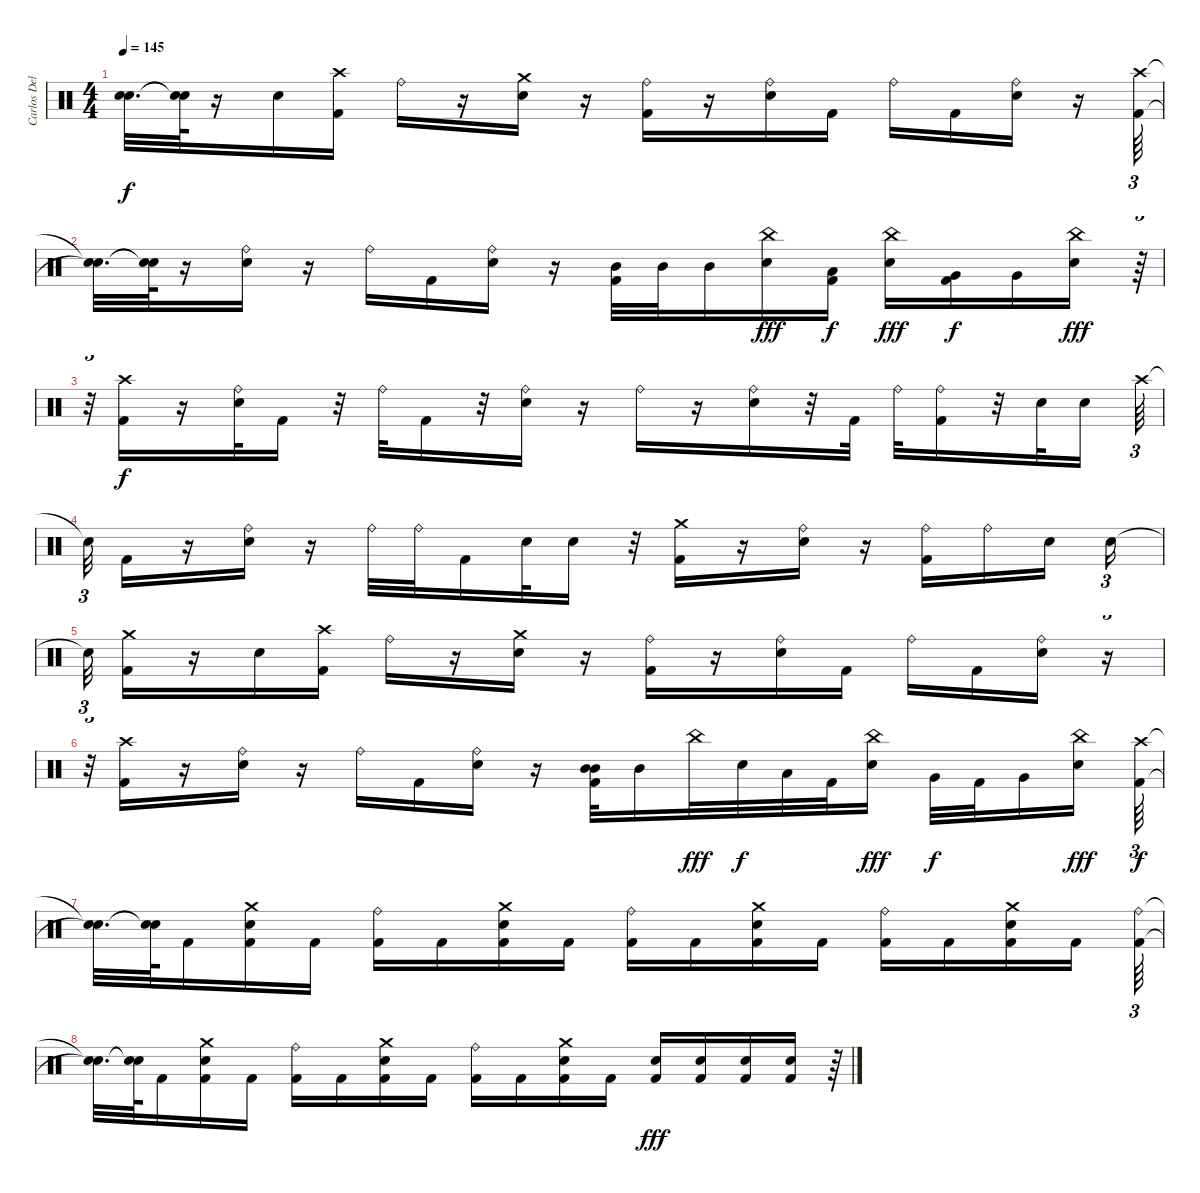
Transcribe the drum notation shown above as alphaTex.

\track ("Carlos Delgado" "Carlos Del") {instrument percussion}
\staff {score}
\articulation defaults
\ts (4 4)
\tempo 145
\clef neutral
\ks c
("Snare (hit)"{t} "Snare (hit)"{t}).32{d dy f} ("Snare (hit)"{t} "Snare (hit)"{t}).64 r.16 "Electric Snare (hit)".16 ("Kick (hit) 2" "Crash high (hit)").16 "Ride (bell)".16 r.16 ("Crash medium (hit)" "Electric Snare (hit)").16 r.16 ("Ride (bell)" "Kick (hit) 2").16 r.16 ("Ride (bell)" "Electric Snare (hit)").16 "Kick (hit) 2".16 "Ride (bell)".16 "Kick (hit) 2".16 ("Ride (bell)" "Electric Snare (hit)").16 r.16 ("Kick (hit) 2" "Crash high (hit)").64{tu (3 2)} |
("Snare (hit)"{t} "Snare (hit)"{t}).32{d} ("Snare (hit)"{t} "Snare (hit)"{t}).64 r.16 ("Ride (bell)" "Electric Snare (hit)").16 r.16 "Ride (bell)".16 "Kick (hit) 2".16 ("Ride (bell)" "Electric Snare (hit)").16 r.16 ("Mid Tom (hit)" "Kick (hit) 2").32 "Mid Tom (hit)".32 "Mid Tom (hit)".16 ("China (hit)" "Electric Snare (hit)").16{dy fff} ("Low Tom (hit)" "Kick (hit) 2").16{dy f} ("China (hit)" "Electric Snare (hit)").16{dy fff} ("Very Low Tom (hit)" "Kick (hit) 2").16{dy f} "Very Low Tom (hit)".16 ("Electric Snare (hit)" "China (hit)").16{dy fff} r.64{tu (3 2)} |
r.32{tu (3 2)} ("Crash high (hit)" "Kick (hit) 2").16{dy f} r.16 ("Ride (bell)" "Electric Snare (hit)").32 "Kick (hit) 2".16 r.32 "Ride (bell)".32 "Kick (hit) 2".16 r.32 ("Ride (bell)" "Electric Snare (hit)").16 r.16 "Ride (bell)".16 r.16 ("Ride (bell)" "Electric Snare (hit)").16 r.32 "Kick (hit) 2".32 "Ride (bell)".32 ("Kick (hit) 2" "Ride (bell)").16 r.32 "Electric Snare (hit)".32 "Electric Snare (hit)".16{beam splitsecondary} "Crash high (hit)".64{tu (3 2)} |
"Snare (hit)"{t}.32{tu (3 2)} "Kick (hit) 2".16 r.16 ("Ride (bell)" "Electric Snare (hit)").16 r.16 "Ride (bell)".32 "Ride (bell)".32 "Kick (hit) 2".16 "Electric Snare (hit)".32 "Electric Snare (hit)".16 r.32 ("Crash medium (hit)" "Kick (hit) 2").16 r.16 ("Ride (bell)" "Electric Snare (hit)").16 r.16 ("Kick (hit) 2" "Ride (bell)").16 "Ride (bell)".16 "Electric Snare (hit)".16{beam splitsecondary} "Electric Snare (hit)".16{tu (3 2)} |
"Snare (hit)"{t}.32{tu (3 2)} ("Kick (hit) 2" "Crash medium (hit)").16 r.16 "Electric Snare (hit)".16 ("Kick (hit) 2" "Crash high (hit)").16 "Ride (bell)".16 r.16 ("Crash medium (hit)" "Electric Snare (hit)").16 r.16 ("Ride (bell)" "Kick (hit) 2").16 r.16 ("Ride (bell)" "Electric Snare (hit)").16 "Kick (hit) 2".16 "Ride (bell)".16 "Kick (hit) 2".16 ("Ride (bell)" "Electric Snare (hit)").16 r.16{tu (3 2)} |
r.32{tu (3 2)} ("Kick (hit) 2" "Crash high (hit)").16 r.16 ("Ride (bell)" "Electric Snare (hit)").16 r.16 "Ride (bell)".16 "Kick (hit) 2".16 ("Ride (bell)" "Electric Snare (hit)").16 r.16 ("Mid Tom (hit)" "Kick (hit) 2" "Mid Tom (hit)").32 "Mid Tom (hit)".16 "China (hit)".32{dy fff} "Electric Snare (hit)".32{dy f} "Low Tom (hit)".32 "Kick (hit) 2".32 ("China (hit)" "Electric Snare (hit)").16{dy fff} "Very Low Tom (hit)".32{dy f} "Kick (hit) 2".32 "Very Low Tom (hit)".16 ("Electric Snare (hit)" "China (hit)").16{dy fff beam splitsecondary} ("Kick (hit) 2" "Crash high (hit)").64{tu (3 2) dy f} |
("Snare (hit)"{t} "Snare (hit)"{t}).32{d} ("Snare (hit)"{t} "Snare (hit)"{t}).64 "Kick (hit) 2".16 ("Kick (hit) 2" "Crash medium (hit)" "Electric Snare (hit)").16 "Kick (hit) 2".16 ("Kick (hit) 2" "Ride (bell)").16 "Kick (hit) 2".16 ("Kick (hit) 2" "Crash medium (hit)" "Electric Snare (hit)").16 "Kick (hit) 2".16 ("Ride (bell)" "Kick (hit) 2").16 "Kick (hit) 2".16 ("Kick (hit) 2" "Crash medium (hit)" "Electric Snare (hit)").16 "Kick (hit) 2".16 ("Kick (hit) 2" "Ride (bell)").16 "Kick (hit) 2".16 ("Kick (hit) 2" "Crash medium (hit)" "Electric Snare (hit)").16 "Kick (hit) 2".16 ("Kick (hit) 2" "Ride (bell)").64{tu (3 2)} |
("Snare (hit)"{t} "Snare (hit)"{t}).32{d} ("Snare (hit)"{t} "Snare (hit)"{t}).64 "Kick (hit) 2".16 ("Kick (hit) 2" "Electric Snare (hit)" "Crash medium (hit)").16 "Kick (hit) 2".16 ("Kick (hit) 2" "Ride (bell)").16 "Kick (hit) 2".16 ("Kick (hit) 2" "Electric Snare (hit)" "Crash medium (hit)").16 "Kick (hit) 2".16 ("Kick (hit) 2" "Ride (bell)").16 "Kick (hit) 2".16 ("Kick (hit) 2" "Crash medium (hit)" "Electric Snare (hit)").16 "Kick (hit) 2".16 ("Electric Snare (hit)" "Kick (hit) 2").16{dy fff} ("Electric Snare (hit)" "Kick (hit) 2").16 ("Kick (hit) 2" "Electric Snare (hit)").16 ("Electric Snare (hit)" "Kick (hit) 2").16 r.64{tu (3 2)}
